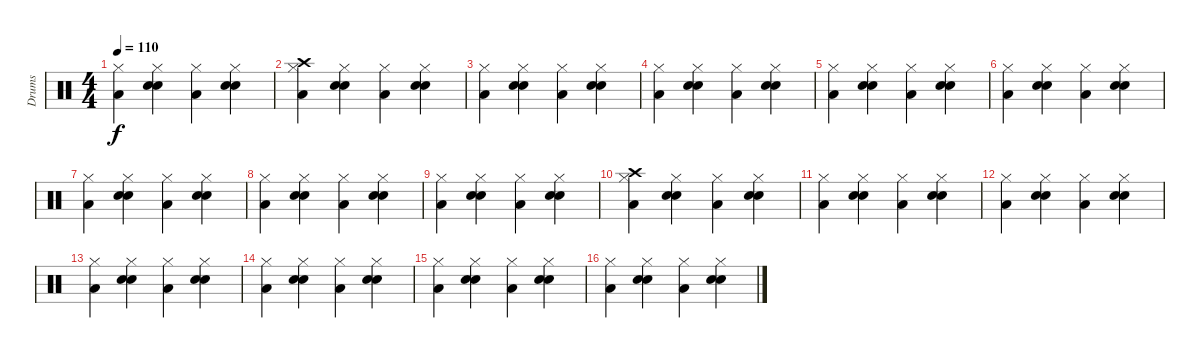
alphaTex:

\track ("Drums" "Drums") {instrument percussion}
\staff {score}
\articulation defaults
\ts (4 4)
\tempo 110
\clef neutral
\ks c
("Hi-Hat (closed)" "Low Tom (hit)").4{dy f} ("Hi-Hat (closed)" "Electric Snare (hit)" "Snare (hit) 2").4 ("Hi-Hat (closed)" "Low Tom (hit)").4 ("Hi-Hat (closed)" "Electric Snare (hit)" "Snare (hit) 2").4 |
("Hi-Hat (closed)" "Low Tom (hit)" "Crash high (hit)").4 ("Hi-Hat (closed)" "Electric Snare (hit)" "Snare (hit) 2").4 ("Hi-Hat (closed)" "Low Tom (hit)").4 ("Hi-Hat (closed)" "Electric Snare (hit)" "Snare (hit) 2").4 |
("Hi-Hat (closed)" "Low Tom (hit)").4 ("Hi-Hat (closed)" "Electric Snare (hit)" "Snare (hit) 2").4 ("Hi-Hat (closed)" "Low Tom (hit)").4 ("Hi-Hat (closed)" "Electric Snare (hit)" "Snare (hit) 2").4 |
("Hi-Hat (closed)" "Low Tom (hit)").4 ("Hi-Hat (closed)" "Electric Snare (hit)" "Snare (hit) 2").4 ("Hi-Hat (closed)" "Low Tom (hit)").4 ("Hi-Hat (closed)" "Electric Snare (hit)" "Snare (hit) 2").4 |
("Hi-Hat (closed)" "Low Tom (hit)").4 ("Hi-Hat (closed)" "Electric Snare (hit)" "Snare (hit) 2").4 ("Hi-Hat (closed)" "Low Tom (hit)").4 ("Hi-Hat (closed)" "Electric Snare (hit)" "Snare (hit) 2").4 |
("Hi-Hat (closed)" "Low Tom (hit)").4 ("Hi-Hat (closed)" "Electric Snare (hit)" "Snare (hit) 2").4 ("Hi-Hat (closed)" "Low Tom (hit)").4 ("Hi-Hat (closed)" "Electric Snare (hit)" "Snare (hit) 2").4 |
("Hi-Hat (closed)" "Low Tom (hit)").4 ("Hi-Hat (closed)" "Electric Snare (hit)" "Snare (hit) 2").4 ("Hi-Hat (closed)" "Low Tom (hit)").4 ("Hi-Hat (closed)" "Electric Snare (hit)" "Snare (hit) 2").4 |
("Hi-Hat (closed)" "Low Tom (hit)").4 ("Hi-Hat (closed)" "Electric Snare (hit)" "Snare (hit) 2").4 ("Hi-Hat (closed)" "Low Tom (hit)").4 ("Hi-Hat (closed)" "Electric Snare (hit)" "Snare (hit) 2").4 |
("Hi-Hat (closed)" "Low Tom (hit)").4 ("Hi-Hat (closed)" "Electric Snare (hit)" "Snare (hit) 2").4 ("Hi-Hat (closed)" "Low Tom (hit)").4 ("Hi-Hat (closed)" "Electric Snare (hit)" "Snare (hit) 2").4 |
("Hi-Hat (closed)" "Low Tom (hit)" "Crash high (hit)").4 ("Hi-Hat (closed)" "Electric Snare (hit)" "Snare (hit) 2").4 ("Hi-Hat (closed)" "Low Tom (hit)").4 ("Hi-Hat (closed)" "Electric Snare (hit)" "Snare (hit) 2").4 |
("Hi-Hat (closed)" "Low Tom (hit)").4 ("Hi-Hat (closed)" "Electric Snare (hit)" "Snare (hit) 2").4 ("Hi-Hat (closed)" "Low Tom (hit)").4 ("Hi-Hat (closed)" "Electric Snare (hit)" "Snare (hit) 2").4 |
("Hi-Hat (closed)" "Low Tom (hit)").4 ("Hi-Hat (closed)" "Electric Snare (hit)" "Snare (hit) 2").4 ("Hi-Hat (closed)" "Low Tom (hit)").4 ("Hi-Hat (closed)" "Electric Snare (hit)" "Snare (hit) 2").4 |
("Hi-Hat (closed)" "Low Tom (hit)").4 ("Hi-Hat (closed)" "Electric Snare (hit)" "Snare (hit) 2").4 ("Hi-Hat (closed)" "Low Tom (hit)").4 ("Hi-Hat (closed)" "Electric Snare (hit)" "Snare (hit) 2").4 |
("Hi-Hat (closed)" "Low Tom (hit)").4 ("Hi-Hat (closed)" "Electric Snare (hit)" "Snare (hit) 2").4 ("Hi-Hat (closed)" "Low Tom (hit)").4 ("Hi-Hat (closed)" "Electric Snare (hit)" "Snare (hit) 2").4 |
("Hi-Hat (closed)" "Low Tom (hit)").4 ("Hi-Hat (closed)" "Electric Snare (hit)" "Snare (hit) 2").4 ("Hi-Hat (closed)" "Low Tom (hit)").4 ("Hi-Hat (closed)" "Electric Snare (hit)" "Snare (hit) 2").4 |
("Hi-Hat (closed)" "Low Tom (hit)").4 ("Hi-Hat (closed)" "Electric Snare (hit)" "Snare (hit) 2").4 ("Hi-Hat (closed)" "Low Tom (hit)").4 ("Hi-Hat (closed)" "Electric Snare (hit)" "Snare (hit) 2").4
